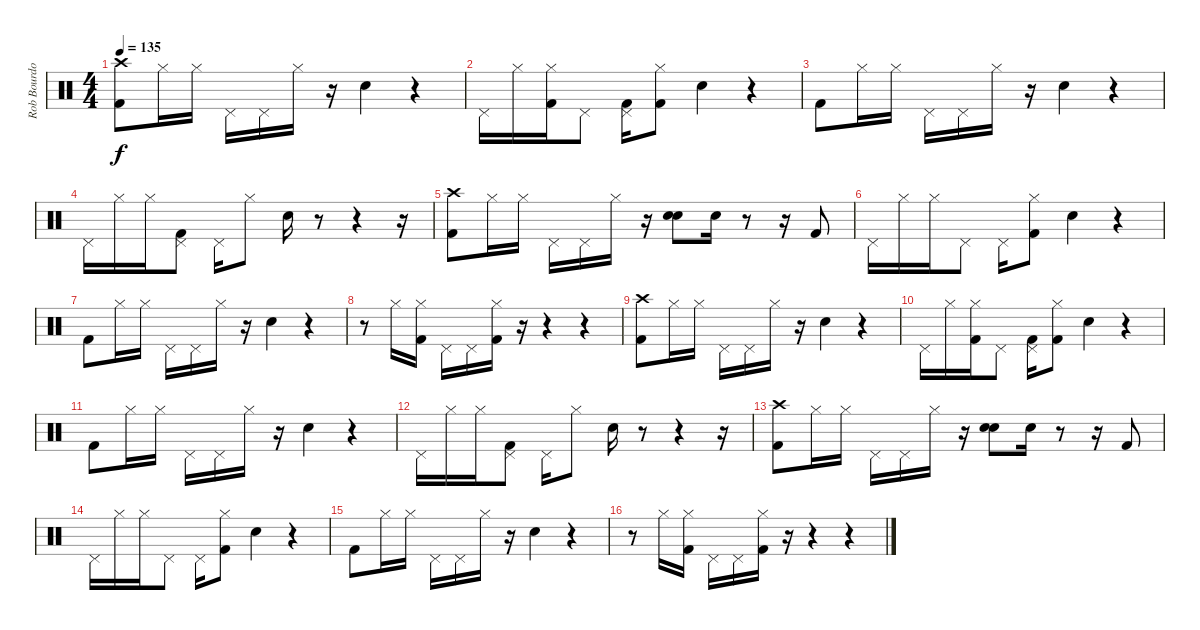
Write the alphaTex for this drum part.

\track ("Rob Bourdon (Drums)" "Rob Bourdo") {instrument percussion}
\staff {score}
\articulation defaults
\ts (4 4)
\tempo 135
\clef neutral
\ks c
("Crash high (hit)" "Kick (hit) 2").8{dy f} "Hi-Hat (closed)".16 "Hi-Hat (closed)".16 "Pedal Hi-Hat (hit)".16 "Pedal Hi-Hat (hit)".16 "Hi-Hat (closed)".16 r.16 "Electric Snare (hit)".4 r.4 |
"Pedal Hi-Hat (hit)".16 "Hi-Hat (closed)".16 ("Hi-Hat (closed)" "Kick (hit) 2").16 "Pedal Hi-Hat (hit)".8 ("Pedal Hi-Hat (hit)" "Kick (hit) 2").16 ("Hi-Hat (closed)" "Kick (hit) 2").8 "Electric Snare (hit)".4 r.4 |
"Kick (hit) 2".8 "Hi-Hat (closed)".16 "Hi-Hat (closed)".16 "Pedal Hi-Hat (hit)".16 "Pedal Hi-Hat (hit)".16 "Hi-Hat (closed)".16 r.16 "Electric Snare (hit)".4 r.4 |
"Pedal Hi-Hat (hit)".16 "Hi-Hat (closed)".16 "Hi-Hat (closed)".16 ("Pedal Hi-Hat (hit)" "Kick (hit) 2").8 "Pedal Hi-Hat (hit)".16 "Hi-Hat (closed)".8 "Electric Snare (hit)".16 r.8 r.4 r.16 |
("Crash high (hit)" "Kick (hit) 2").8 "Hi-Hat (closed)".16 "Hi-Hat (closed)".16 "Pedal Hi-Hat (hit)".16 "Pedal Hi-Hat (hit)".16 "Hi-Hat (closed)".16 r.16 ("Electric Snare (hit)" "Electric Snare (hit)").8 "Electric Snare (hit)".16 r.8 r.16 "Kick (hit) 2".8 |
"Pedal Hi-Hat (hit)".16 "Hi-Hat (closed)".16 "Hi-Hat (closed)".16 "Pedal Hi-Hat (hit)".8 "Pedal Hi-Hat (hit)".16 ("Hi-Hat (closed)" "Kick (hit) 2").8 "Electric Snare (hit)".4 r.4 |
"Kick (hit) 2".8 "Hi-Hat (closed)".16 "Hi-Hat (closed)".16 "Pedal Hi-Hat (hit)".16 "Pedal Hi-Hat (hit)".16 "Hi-Hat (closed)".16 r.16 "Electric Snare (hit)".4 r.4 |
r.8 "Hi-Hat (closed)".16 ("Hi-Hat (closed)" "Kick (hit) 2").16 "Pedal Hi-Hat (hit)".16 "Pedal Hi-Hat (hit)".16 ("Hi-Hat (closed)" "Kick (hit) 2").16 r.16 r.4 r.4 |
("Crash high (hit)" "Kick (hit) 2").8 "Hi-Hat (closed)".16 "Hi-Hat (closed)".16 "Pedal Hi-Hat (hit)".16 "Pedal Hi-Hat (hit)".16 "Hi-Hat (closed)".16 r.16 "Electric Snare (hit)".4 r.4 |
"Pedal Hi-Hat (hit)".16 "Hi-Hat (closed)".16 ("Hi-Hat (closed)" "Kick (hit) 2").16 "Pedal Hi-Hat (hit)".8 ("Pedal Hi-Hat (hit)" "Kick (hit) 2").16 ("Hi-Hat (closed)" "Kick (hit) 2").8 "Electric Snare (hit)".4 r.4 |
"Kick (hit) 2".8 "Hi-Hat (closed)".16 "Hi-Hat (closed)".16 "Pedal Hi-Hat (hit)".16 "Pedal Hi-Hat (hit)".16 "Hi-Hat (closed)".16 r.16 "Electric Snare (hit)".4 r.4 |
"Pedal Hi-Hat (hit)".16 "Hi-Hat (closed)".16 "Hi-Hat (closed)".16 ("Pedal Hi-Hat (hit)" "Kick (hit) 2").8 "Pedal Hi-Hat (hit)".16 "Hi-Hat (closed)".8 "Electric Snare (hit)".16 r.8 r.4 r.16 |
("Crash high (hit)" "Kick (hit) 2").8 "Hi-Hat (closed)".16 "Hi-Hat (closed)".16 "Pedal Hi-Hat (hit)".16 "Pedal Hi-Hat (hit)".16 "Hi-Hat (closed)".16 r.16 ("Electric Snare (hit)" "Electric Snare (hit)").8 "Electric Snare (hit)".16 r.8 r.16 "Kick (hit) 2".8 |
"Pedal Hi-Hat (hit)".16 "Hi-Hat (closed)".16 "Hi-Hat (closed)".16 "Pedal Hi-Hat (hit)".8 "Pedal Hi-Hat (hit)".16 ("Hi-Hat (closed)" "Kick (hit) 2").8 "Electric Snare (hit)".4 r.4 |
"Kick (hit) 2".8 "Hi-Hat (closed)".16 "Hi-Hat (closed)".16 "Pedal Hi-Hat (hit)".16 "Pedal Hi-Hat (hit)".16 "Hi-Hat (closed)".16 r.16 "Electric Snare (hit)".4 r.4 |
r.8 "Hi-Hat (closed)".16 ("Hi-Hat (closed)" "Kick (hit) 2").16 "Pedal Hi-Hat (hit)".16 "Pedal Hi-Hat (hit)".16 ("Hi-Hat (closed)" "Kick (hit) 2").16 r.16 r.4 r.4
